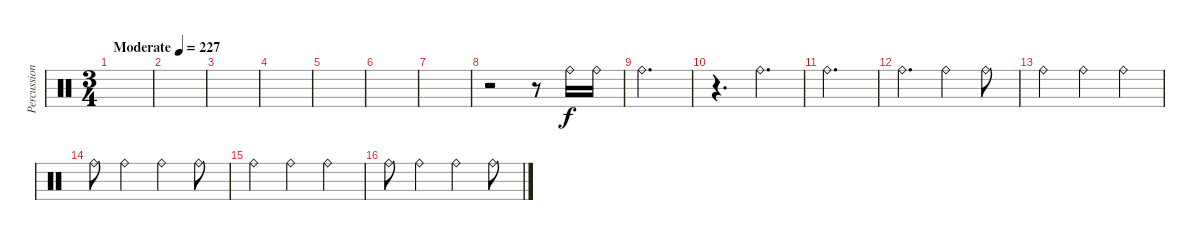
\track ("Percussion" "Percussion") {instrument percussion}
\staff {score}
\articulation defaults
\ts (3 4)
\tempo (227 "Moderate")
\clef neutral
\ks c
|
|
|
|
|
|
|
r.2 r.8 "Ride (bell)".16 "Ride (bell)".16 |
"Ride (bell)".2{d} |
r.4{d} "Ride (bell)".4{d} |
"Ride (bell)".2{d} |
"Ride (bell)".4{d} "Ride (bell)".4 "Ride (bell)".8 |
"Ride (bell)".4 "Ride (bell)".4 "Ride (bell)".4 |
"Ride (bell)".8 "Ride (bell)".4 "Ride (bell)".4 "Ride (bell)".8 |
"Ride (bell)".4 "Ride (bell)".4 "Ride (bell)".4 |
"Ride (bell)".8 "Ride (bell)".4 "Ride (bell)".4 "Ride (bell)".8
